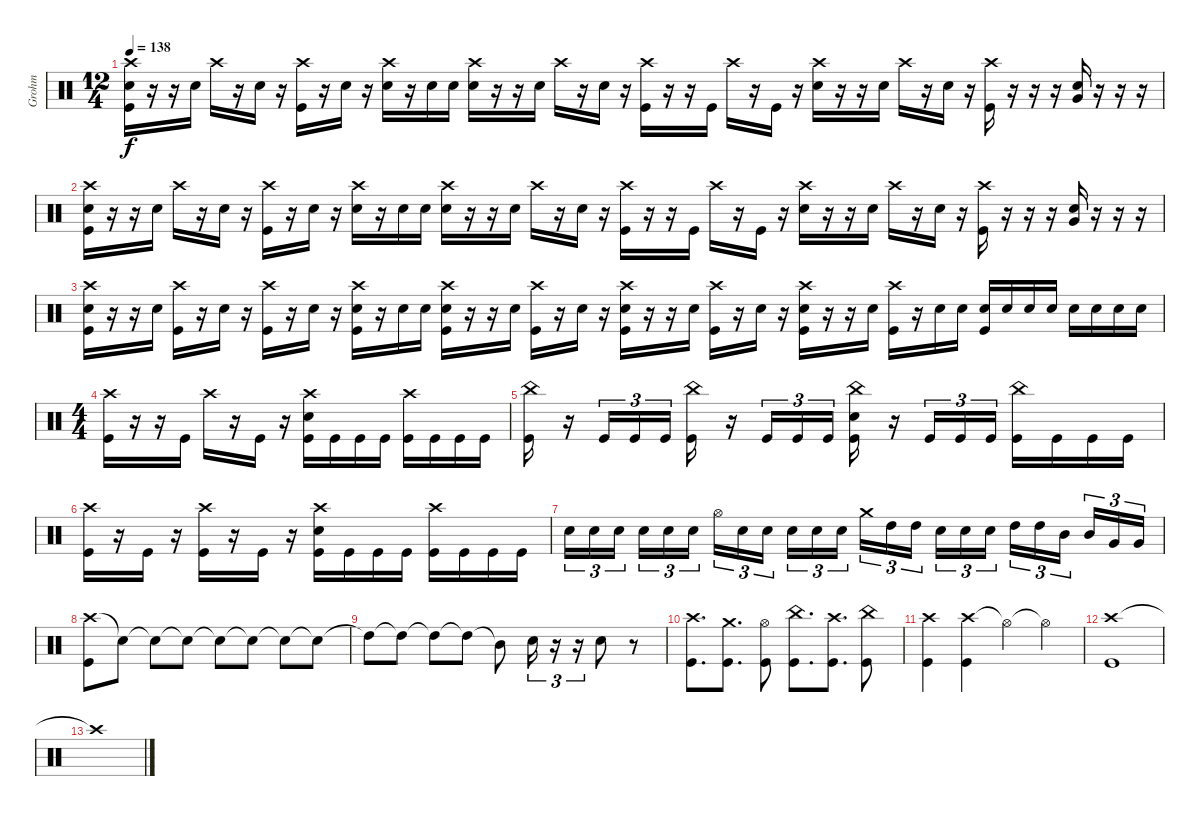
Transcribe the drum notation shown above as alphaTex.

\track ("Grohm" "Grohm") {instrument percussion}
\staff {score}
\articulation defaults
\ts (12 4)
\tempo 138
\clef neutral
\ks c
("Crash high (hit)" "Snare (hit) 2" "Kick (hit)").16{dy f} r.16 r.16 "Snare (hit) 2".16 "Crash high (hit)".16 r.16 "Snare (hit) 2".16 r.16 ("Crash high (hit)" "Kick (hit)").16 r.16 "Snare (hit) 2".16 r.16 ("Crash high (hit)" "Snare (hit) 2").16 r.16 "Snare (hit) 2".16 "Snare (hit) 2".16 ("Crash high (hit)" "Snare (hit) 2").16 r.16 r.16 "Snare (hit) 2".16 "Crash high (hit)".16 r.16 "Snare (hit) 2".16 r.16 ("Crash high (hit)" "Kick (hit)").16 r.16 r.16 "Kick (hit)".16 "Crash high (hit)".16 r.16 "Kick (hit)".16 r.16 ("Crash high (hit)" "Snare (hit) 2").16 r.16 r.16 "Snare (hit) 2".16 "Crash high (hit)".16 r.16 "Snare (hit) 2".16 r.16 ("Crash high (hit)" "Kick (hit)").16 r.16 r.16 r.16 ("Very Low Tom (hit)" "Snare (hit) 2").16 r.16 r.16 r.16 |
("Crash high (hit)" "Snare (hit) 2" "Kick (hit)").16 r.16 r.16 "Snare (hit) 2".16 "Crash high (hit)".16 r.16 "Snare (hit) 2".16 r.16 ("Crash high (hit)" "Kick (hit)").16 r.16 "Snare (hit) 2".16 r.16 ("Crash high (hit)" "Snare (hit) 2").16 r.16 "Snare (hit) 2".16 "Snare (hit) 2".16 ("Crash high (hit)" "Snare (hit) 2").16 r.16 r.16 "Snare (hit) 2".16 "Crash high (hit)".16 r.16 "Snare (hit) 2".16 r.16 ("Crash high (hit)" "Kick (hit)").16 r.16 r.16 "Kick (hit)".16 "Crash high (hit)".16 r.16 "Kick (hit)".16 r.16 ("Crash high (hit)" "Snare (hit) 2").16 r.16 r.16 "Snare (hit) 2".16 "Crash high (hit)".16 r.16 "Snare (hit) 2".16 r.16 ("Crash high (hit)" "Kick (hit)").16 r.16 r.16 r.16 ("Very Low Tom (hit)" "Snare (hit) 2").16 r.16 r.16 r.16 |
("Crash high (hit)" "Snare (hit) 2" "Kick (hit)").16 r.16 r.16 "Snare (hit) 2".16 ("Crash high (hit)" "Kick (hit)").16 r.16 "Snare (hit) 2".16 r.16 ("Crash high (hit)" "Kick (hit)").16 r.16 "Snare (hit) 2".16 r.16 ("Crash high (hit)" "Snare (hit) 2" "Kick (hit)").16 r.16 "Snare (hit) 2".16 "Snare (hit) 2".16 ("Crash high (hit)" "Snare (hit) 2" "Kick (hit)").16 r.16 r.16 "Snare (hit) 2".16 ("Crash high (hit)" "Kick (hit)").16 r.16 "Snare (hit) 2".16 r.16 ("Crash high (hit)" "Snare (hit) 2" "Kick (hit)").16 r.16 r.16 "Snare (hit) 2".16 ("Crash high (hit)" "Kick (hit)").16 r.16 "Snare (hit) 2".16 r.16 ("Crash high (hit)" "Snare (hit) 2" "Kick (hit)").16 r.16 r.16 "Snare (hit) 2".16 ("Crash high (hit)" "Kick (hit)").16 r.16 "Snare (hit) 2".16 "Snare (hit) 2".16 ("Snare (hit) 2" "Kick (hit)").16 "Snare (hit) 2".16 "Snare (hit) 2".16 "Snare (hit) 2".16 "Snare (hit) 2".16 "Snare (hit) 2".16 "Snare (hit) 2".16 "Snare (hit) 2".16 |
\ts (4 4)
("Crash high (hit)" "Kick (hit)").16 r.16 r.16 "Kick (hit)".16 "Crash high (hit)".16 r.16 "Kick (hit)".16 r.16 ("Crash high (hit)" "Snare (hit) 2" "Kick (hit)").16 "Kick (hit)".16 "Kick (hit)".16 "Kick (hit)".16 ("Crash high (hit)" "Kick (hit)").16 "Kick (hit)".16 "Kick (hit)".16 "Kick (hit)".16 |
("China (hit)" "Kick (hit)").16 r.16 "Kick (hit)".16{tu (3 2)} "Kick (hit)".16{tu (3 2)} "Kick (hit)".16{tu (3 2)} ("China (hit)" "Kick (hit)").16 r.16 "Kick (hit)".16{tu (3 2)} "Kick (hit)".16{tu (3 2)} "Kick (hit)".16{tu (3 2)} ("China (hit)" "Snare (hit) 2" "Kick (hit)").16 r.16 "Kick (hit)".16{tu (3 2)} "Kick (hit)".16{tu (3 2)} "Kick (hit)".16{tu (3 2)} ("China (hit)" "Kick (hit)").16 "Kick (hit)".16 "Kick (hit)".16 "Kick (hit)".16 |
("Crash high (hit)" "Kick (hit)").16 r.16 "Kick (hit)".16 r.16 ("Crash high (hit)" "Kick (hit)").16 r.16 "Kick (hit)".16 r.16 ("Crash high (hit)" "Snare (hit) 2" "Kick (hit)").16 "Kick (hit)".16 "Kick (hit)".16 "Kick (hit)".16 ("Crash high (hit)" "Kick (hit)").16 "Kick (hit)".16 "Kick (hit)".16 "Kick (hit)".16 |
"Snare (hit) 2".16{tu (3 2)} "Snare (hit) 2".16{tu (3 2)} "Snare (hit) 2".16{tu (3 2) beam splitsecondary} "Snare (hit) 2".16{tu (3 2)} "Snare (hit) 2".16{tu (3 2)} "Snare (hit) 2".16{tu (3 2)} "Hi-Hat (open)".16{tu (3 2)} "Snare (hit) 2".16{tu (3 2)} "Snare (hit) 2".16{tu (3 2) beam splitsecondary} "Snare (hit) 2".16{tu (3 2)} "Snare (hit) 2".16{tu (3 2)} "Snare (hit) 2".16{tu (3 2)} "Crash medium (hit)".16{tu (3 2)} "High Tom (hit)".16{tu (3 2)} "High Tom (hit)".16{tu (3 2) beam splitsecondary} "Snare (hit) 2".16{tu (3 2)} "Snare (hit) 2".16{tu (3 2)} "Snare (hit) 2".16{tu (3 2)} "High Tom (hit)".16{tu (3 2)} "High Tom (hit)".16{tu (3 2)} "Mid Tom (hit)".16{tu (3 2) beam splitsecondary} "Mid Tom (hit)".16{tu (3 2)} "Very Low Tom (hit)".16{tu (3 2)} "Very Low Tom (hit)".16{tu (3 2)} |
("Crash high (hit)" "Kick (hit)").8 "Snare (hit)"{t}.8 "Snare (hit)"{t}.8 "Snare (hit)"{t}.8 "Snare (hit)"{t}.8 "Snare (hit)"{t}.8 "Snare (hit)"{t}.8 "Snare (hit)"{t}.8 |
"High Tom (hit)"{t}.8 "High Tom (hit)"{t}.8 "High Tom (hit)"{t}.8 "High Tom (hit)"{t}.8 "Mid Tom (hit)"{t}.8 "Snare (hit) 2".16{tu (3 2)} r.16{tu (3 2)} r.16{tu (3 2)} "Snare (hit) 2".8 r.8 |
("Crash high (hit)" "Kick (hit)").8{d} ("Crash medium (hit)" "Kick (hit)").8{d} ("Hi-Hat (open)" "Kick (hit)").8 ("China (hit)" "Kick (hit)").8{d} ("Crash high (hit)" "Kick (hit)").8{d} ("China (hit)" "Kick (hit)").8 |
("Crash high (hit)" "Kick (hit)").4 ("Crash high (hit)" "Kick (hit)").4 "Hi-Hat (open)"{t}.4 "Hi-Hat (open)"{t}.4 |
("Crash high (hit)" "Kick (hit)").1 |
"Crash high (hit)"{t}.1
